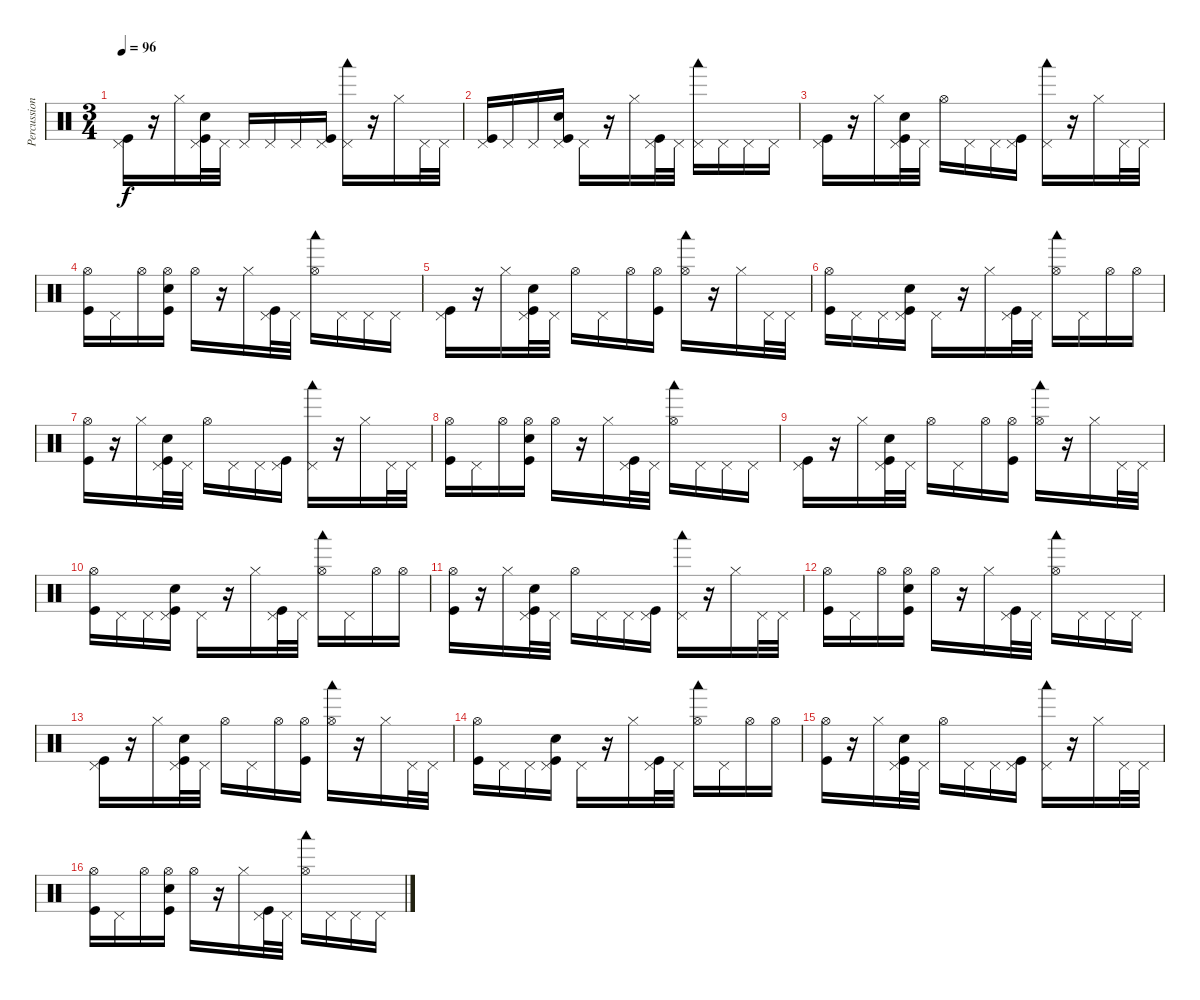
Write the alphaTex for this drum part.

\track ("Percussions" "Percussion") {instrument percussion}
\staff {score}
\articulation defaults
\ts (3 4)
\tempo 96
\clef neutral
\ks c
("Pedal Hi-Hat (hit)" "Kick (hit)").16{dy f} r.16 "Hi-Hat (closed)".16 ("Pedal Hi-Hat (hit)" "Metronome (bell)" "Kick (hit)").32 "Pedal Hi-Hat (hit)".32 "Pedal Hi-Hat (hit)".16 "Pedal Hi-Hat (hit)".16 "Pedal Hi-Hat (hit)".16 ("Pedal Hi-Hat (hit)" "Kick (hit)").16 ("Pedal Hi-Hat (hit)" "Woodblock low (hit)").16 r.16 "Hi-Hat (closed)".16 "Pedal Hi-Hat (hit)".32 "Pedal Hi-Hat (hit)".32 |
("Pedal Hi-Hat (hit)" "Kick (hit)").16 "Pedal Hi-Hat (hit)".16 "Pedal Hi-Hat (hit)".16 ("Pedal Hi-Hat (hit)" "Metronome (bell)" "Kick (hit)").16 "Pedal Hi-Hat (hit)".16 r.16 "Hi-Hat (closed)".16 ("Pedal Hi-Hat (hit)" "Kick (hit)").32 "Pedal Hi-Hat (hit)".32 ("Pedal Hi-Hat (hit)" "Woodblock low (hit)").16 "Pedal Hi-Hat (hit)".16 "Pedal Hi-Hat (hit)".16 "Pedal Hi-Hat (hit)".16 |
("Pedal Hi-Hat (hit)" "Kick (hit)").16 r.16 "Hi-Hat (closed)".16 ("Pedal Hi-Hat (hit)" "Metronome (bell)" "Kick (hit)").32 "Pedal Hi-Hat (hit)".32 "Hi-Hat (open)".16 "Pedal Hi-Hat (hit)".16 "Pedal Hi-Hat (hit)".16 ("Pedal Hi-Hat (hit)" "Kick (hit)").16 ("Pedal Hi-Hat (hit)" "Woodblock low (hit)").16 r.16 "Hi-Hat (closed)".16 "Pedal Hi-Hat (hit)".32 "Pedal Hi-Hat (hit)".32 |
("Hi-Hat (open)" "Kick (hit)").16 "Pedal Hi-Hat (hit)".16 "Hi-Hat (open)".16 ("Hi-Hat (open)" "Metronome (bell)" "Kick (hit)").16 "Hi-Hat (open)".16 r.16 "Hi-Hat (closed)".16 ("Pedal Hi-Hat (hit)" "Kick (hit)").32 "Pedal Hi-Hat (hit)".32 ("Hi-Hat (open)" "Woodblock low (hit)").16 "Pedal Hi-Hat (hit)".16 "Pedal Hi-Hat (hit)".16 "Pedal Hi-Hat (hit)".16 |
("Pedal Hi-Hat (hit)" "Kick (hit)").16 r.16 "Hi-Hat (closed)".16 ("Pedal Hi-Hat (hit)" "Metronome (bell)" "Kick (hit)").32 "Pedal Hi-Hat (hit)".32 "Hi-Hat (open)".16 "Pedal Hi-Hat (hit)".16 "Hi-Hat (open)".16 ("Hi-Hat (open)" "Kick (hit)").16 ("Hi-Hat (open)" "Woodblock low (hit)").16 r.16 "Hi-Hat (closed)".16 "Pedal Hi-Hat (hit)".32 "Pedal Hi-Hat (hit)".32 |
("Hi-Hat (open)" "Kick (hit)").16 "Pedal Hi-Hat (hit)".16 "Pedal Hi-Hat (hit)".16 ("Pedal Hi-Hat (hit)" "Metronome (bell)" "Kick (hit)").16 "Pedal Hi-Hat (hit)".16 r.16 "Hi-Hat (closed)".16 ("Pedal Hi-Hat (hit)" "Kick (hit)").32 "Pedal Hi-Hat (hit)".32 ("Hi-Hat (open)" "Woodblock low (hit)").16 "Pedal Hi-Hat (hit)".16 "Hi-Hat (open)".16 "Hi-Hat (open)".16 |
("Hi-Hat (open)" "Kick (hit)").16 r.16 "Hi-Hat (closed)".16 ("Pedal Hi-Hat (hit)" "Metronome (bell)" "Kick (hit)").32 "Pedal Hi-Hat (hit)".32 "Hi-Hat (open)".16 "Pedal Hi-Hat (hit)".16 "Pedal Hi-Hat (hit)".16 ("Pedal Hi-Hat (hit)" "Kick (hit)").16 ("Pedal Hi-Hat (hit)" "Woodblock low (hit)").16 r.16 "Hi-Hat (closed)".16 "Pedal Hi-Hat (hit)".32 "Pedal Hi-Hat (hit)".32 |
("Hi-Hat (open)" "Kick (hit)").16 "Pedal Hi-Hat (hit)".16 "Hi-Hat (open)".16 ("Hi-Hat (open)" "Metronome (bell)" "Kick (hit)").16 "Hi-Hat (open)".16 r.16 "Hi-Hat (closed)".16 ("Pedal Hi-Hat (hit)" "Kick (hit)").32 "Pedal Hi-Hat (hit)".32 ("Hi-Hat (open)" "Woodblock low (hit)").16 "Pedal Hi-Hat (hit)".16 "Pedal Hi-Hat (hit)".16 "Pedal Hi-Hat (hit)".16 |
("Pedal Hi-Hat (hit)" "Kick (hit)").16 r.16 "Hi-Hat (closed)".16 ("Pedal Hi-Hat (hit)" "Metronome (bell)" "Kick (hit)").32 "Pedal Hi-Hat (hit)".32 "Hi-Hat (open)".16 "Pedal Hi-Hat (hit)".16 "Hi-Hat (open)".16 ("Hi-Hat (open)" "Kick (hit)").16 ("Hi-Hat (open)" "Woodblock low (hit)").16 r.16 "Hi-Hat (closed)".16 "Pedal Hi-Hat (hit)".32 "Pedal Hi-Hat (hit)".32 |
("Hi-Hat (open)" "Kick (hit)").16 "Pedal Hi-Hat (hit)".16 "Pedal Hi-Hat (hit)".16 ("Pedal Hi-Hat (hit)" "Metronome (bell)" "Kick (hit)").16 "Pedal Hi-Hat (hit)".16 r.16 "Hi-Hat (closed)".16 ("Pedal Hi-Hat (hit)" "Kick (hit)").32 "Pedal Hi-Hat (hit)".32 ("Hi-Hat (open)" "Woodblock low (hit)").16 "Pedal Hi-Hat (hit)".16 "Hi-Hat (open)".16 "Hi-Hat (open)".16 |
("Hi-Hat (open)" "Kick (hit)").16 r.16 "Hi-Hat (closed)".16 ("Pedal Hi-Hat (hit)" "Metronome (bell)" "Kick (hit)").32 "Pedal Hi-Hat (hit)".32 "Hi-Hat (open)".16 "Pedal Hi-Hat (hit)".16 "Pedal Hi-Hat (hit)".16 ("Pedal Hi-Hat (hit)" "Kick (hit)").16 ("Pedal Hi-Hat (hit)" "Woodblock low (hit)").16 r.16 "Hi-Hat (closed)".16 "Pedal Hi-Hat (hit)".32 "Pedal Hi-Hat (hit)".32 |
("Hi-Hat (open)" "Kick (hit)").16 "Pedal Hi-Hat (hit)".16 "Hi-Hat (open)".16 ("Hi-Hat (open)" "Metronome (bell)" "Kick (hit)").16 "Hi-Hat (open)".16 r.16 "Hi-Hat (closed)".16 ("Pedal Hi-Hat (hit)" "Kick (hit)").32 "Pedal Hi-Hat (hit)".32 ("Hi-Hat (open)" "Woodblock low (hit)").16 "Pedal Hi-Hat (hit)".16 "Pedal Hi-Hat (hit)".16 "Pedal Hi-Hat (hit)".16 |
("Pedal Hi-Hat (hit)" "Kick (hit)").16 r.16 "Hi-Hat (closed)".16 ("Pedal Hi-Hat (hit)" "Metronome (bell)" "Kick (hit)").32 "Pedal Hi-Hat (hit)".32 "Hi-Hat (open)".16 "Pedal Hi-Hat (hit)".16 "Hi-Hat (open)".16 ("Hi-Hat (open)" "Kick (hit)").16 ("Hi-Hat (open)" "Woodblock low (hit)").16 r.16 "Hi-Hat (closed)".16 "Pedal Hi-Hat (hit)".32 "Pedal Hi-Hat (hit)".32 |
("Hi-Hat (open)" "Kick (hit)").16 "Pedal Hi-Hat (hit)".16 "Pedal Hi-Hat (hit)".16 ("Pedal Hi-Hat (hit)" "Metronome (bell)" "Kick (hit)").16 "Pedal Hi-Hat (hit)".16 r.16 "Hi-Hat (closed)".16 ("Pedal Hi-Hat (hit)" "Kick (hit)").32 "Pedal Hi-Hat (hit)".32 ("Hi-Hat (open)" "Woodblock low (hit)").16 "Pedal Hi-Hat (hit)".16 "Hi-Hat (open)".16 "Hi-Hat (open)".16 |
("Hi-Hat (open)" "Kick (hit)").16 r.16 "Hi-Hat (closed)".16 ("Pedal Hi-Hat (hit)" "Metronome (bell)" "Kick (hit)").32 "Pedal Hi-Hat (hit)".32 "Hi-Hat (open)".16 "Pedal Hi-Hat (hit)".16 "Pedal Hi-Hat (hit)".16 ("Pedal Hi-Hat (hit)" "Kick (hit)").16 ("Pedal Hi-Hat (hit)" "Woodblock low (hit)").16 r.16 "Hi-Hat (closed)".16 "Pedal Hi-Hat (hit)".32 "Pedal Hi-Hat (hit)".32 |
("Hi-Hat (open)" "Kick (hit)").16 "Pedal Hi-Hat (hit)".16 "Hi-Hat (open)".16 ("Hi-Hat (open)" "Metronome (bell)" "Kick (hit)").16 "Hi-Hat (open)".16 r.16 "Hi-Hat (closed)".16 ("Pedal Hi-Hat (hit)" "Kick (hit)").32 "Pedal Hi-Hat (hit)".32 ("Hi-Hat (open)" "Woodblock low (hit)").16 "Pedal Hi-Hat (hit)".16 "Pedal Hi-Hat (hit)".16 "Pedal Hi-Hat (hit)".16
